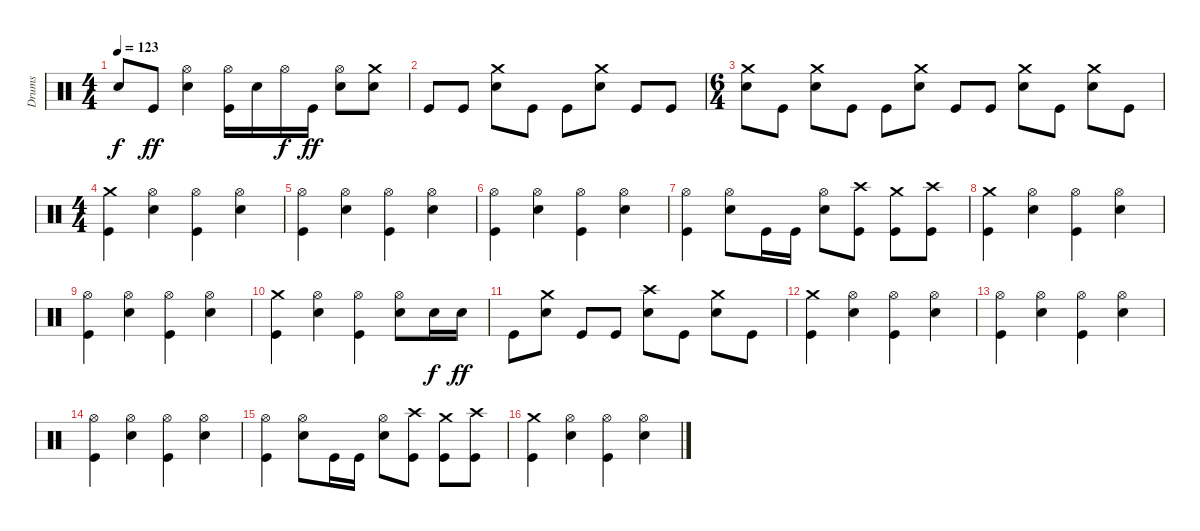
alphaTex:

\track ("Drums" "Drums") {instrument percussion}
\staff {score}
\articulation defaults
\ts (4 4)
\tempo 123
\clef neutral
\ks c "Snare (hit)"{t}.8{dy f} "Kick (hit)".8{dy ff}
("Hi-Hat (open)" "Electric Snare (hit)").4 ("Hi-Hat (open)" "Kick (hit)").16 "Electric Snare (hit)".16 "Hi-Hat (open)".16{dy f} "Kick (hit)".16{dy ff} ("Hi-Hat (open)" "Electric Snare (hit)").8 ("Crash medium (hit)" "Electric Snare (hit)").8 |
"Kick (hit)".8 "Kick (hit)".8 ("Crash medium (hit)" "Electric Snare (hit)").8 "Kick (hit)".8 "Kick (hit)".8 ("Crash medium (hit)" "Electric Snare (hit)").8 "Kick (hit)".8 "Kick (hit)".8 |
\ts (6 4)
("Crash medium (hit)" "Electric Snare (hit)").8 "Kick (hit)".8 ("Crash medium (hit)" "Electric Snare (hit)").8 "Kick (hit)".8 "Kick (hit)".8 ("Crash medium (hit)" "Electric Snare (hit)").8 "Kick (hit)".8 "Kick (hit)".8 ("Crash medium (hit)" "Electric Snare (hit)").8 "Kick (hit)".8 ("Crash medium (hit)" "Electric Snare (hit)").8 "Kick (hit)".8 |
\ts (4 4)
("Crash medium (hit)" "Kick (hit)").4 ("Hi-Hat (open)" "Electric Snare (hit)").4 ("Hi-Hat (open)" "Kick (hit)").4 ("Hi-Hat (open)" "Electric Snare (hit)").4 |
("Hi-Hat (open)" "Kick (hit)").4 ("Hi-Hat (open)" "Electric Snare (hit)").4 ("Hi-Hat (open)" "Kick (hit)").4 ("Hi-Hat (open)" "Electric Snare (hit)").4 |
("Hi-Hat (open)" "Kick (hit)").4 ("Hi-Hat (open)" "Electric Snare (hit)").4 ("Hi-Hat (open)" "Kick (hit)").4 ("Hi-Hat (open)" "Electric Snare (hit)").4 |
("Hi-Hat (open)" "Kick (hit)").4 ("Hi-Hat (open)" "Electric Snare (hit)").8 "Kick (hit)".16 "Kick (hit)".16 ("Hi-Hat (open)" "Electric Snare (hit)").8 ("Crash high (hit)" "Kick (hit)").8 ("Crash medium (hit)" "Kick (hit)").8 ("Crash high (hit)" "Kick (hit)").8 |
("Crash medium (hit)" "Kick (hit)").4 ("Hi-Hat (open)" "Electric Snare (hit)").4 ("Hi-Hat (open)" "Kick (hit)").4 ("Hi-Hat (open)" "Electric Snare (hit)").4 |
("Hi-Hat (open)" "Kick (hit)").4 ("Hi-Hat (open)" "Electric Snare (hit)").4 ("Hi-Hat (open)" "Kick (hit)").4 ("Hi-Hat (open)" "Electric Snare (hit)").4 |
("Crash medium (hit)" "Kick (hit)").4 ("Hi-Hat (open)" "Electric Snare (hit)").4 ("Hi-Hat (open)" "Kick (hit)").4 ("Hi-Hat (open)" "Electric Snare (hit)").8 "Electric Snare (hit)".16{dy f} "Electric Snare (hit)".16{dy ff} |
"Kick (hit)".8 ("Crash medium (hit)" "Electric Snare (hit)").8 "Kick (hit)".8 "Kick (hit)".8 ("Crash high (hit)" "Electric Snare (hit)").8 "Kick (hit)".8 ("Crash medium (hit)" "Electric Snare (hit)").8 "Kick (hit)".8 |
("Crash medium (hit)" "Kick (hit)").4 ("Hi-Hat (open)" "Electric Snare (hit)").4 ("Hi-Hat (open)" "Kick (hit)").4 ("Hi-Hat (open)" "Electric Snare (hit)").4 |
("Hi-Hat (open)" "Kick (hit)").4 ("Hi-Hat (open)" "Electric Snare (hit)").4 ("Hi-Hat (open)" "Kick (hit)").4 ("Hi-Hat (open)" "Electric Snare (hit)").4 |
("Hi-Hat (open)" "Kick (hit)").4 ("Hi-Hat (open)" "Electric Snare (hit)").4 ("Hi-Hat (open)" "Kick (hit)").4 ("Hi-Hat (open)" "Electric Snare (hit)").4 |
("Hi-Hat (open)" "Kick (hit)").4 ("Hi-Hat (open)" "Electric Snare (hit)").8 "Kick (hit)".16 "Kick (hit)".16 ("Hi-Hat (open)" "Electric Snare (hit)").8 ("Crash high (hit)" "Kick (hit)").8 ("Crash medium (hit)" "Kick (hit)").8 ("Crash high (hit)" "Kick (hit)").8 |
("Crash medium (hit)" "Kick (hit)").4 ("Hi-Hat (open)" "Electric Snare (hit)").4 ("Hi-Hat (open)" "Kick (hit)").4 ("Hi-Hat (open)" "Electric Snare (hit)").4
